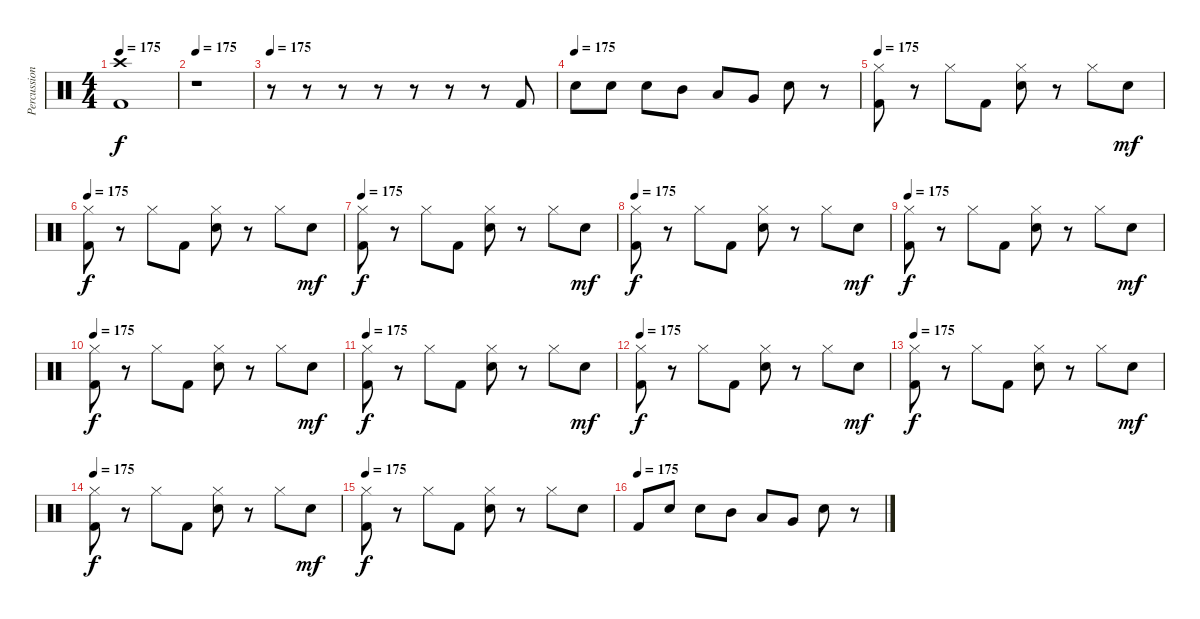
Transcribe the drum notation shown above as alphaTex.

\track ("Percussions" "Percussion") {instrument percussion}
\staff {score}
\articulation defaults
\ts (4 4)
\tempo 180
\tempo 175
\clef neutral
\ks c
("Crash high (hit)" "Kick (hit) 2").1{dy f} |
\tempo 175
r.1 |
\tempo 175
r.8 r.8 r.8 r.8 r.8 r.8 r.8 "Kick (hit) 2".8 |
\tempo (175)
"Snare (hit) 2".8 "Snare (hit) 2".8 "Snare (hit) 2".8 "Mid Tom (hit)".8 "Low Tom (hit)".8 "Very Low Tom (hit)".8 "Snare (hit) 2".8 r.8 |
\tempo 175
("Hi-Hat (closed)" "Kick (hit) 2").8 r.8 "Hi-Hat (closed)".8 "Kick (hit) 2".8 ("Hi-Hat (closed)" "Snare (hit) 2").8 r.8 "Hi-Hat (closed)".8 "Snare (hit) 2".8{dy mf} |
\tempo 175
("Hi-Hat (closed)" "Kick (hit) 2").8{dy f} r.8 "Hi-Hat (closed)".8 "Kick (hit) 2".8 ("Hi-Hat (closed)" "Snare (hit) 2").8 r.8 "Hi-Hat (closed)".8 "Snare (hit) 2".8{dy mf} |
\tempo 175
("Hi-Hat (closed)" "Kick (hit) 2").8{dy f} r.8 "Hi-Hat (closed)".8 "Kick (hit) 2".8 ("Hi-Hat (closed)" "Snare (hit) 2").8 r.8 "Hi-Hat (closed)".8 "Snare (hit) 2".8{dy mf} |
\tempo 175
("Hi-Hat (closed)" "Kick (hit) 2").8{dy f} r.8 "Hi-Hat (closed)".8 "Kick (hit) 2".8 ("Hi-Hat (closed)" "Snare (hit) 2").8 r.8 "Hi-Hat (closed)".8 "Snare (hit) 2".8{dy mf} |
\tempo 175
("Hi-Hat (closed)" "Kick (hit) 2").8{dy f} r.8 "Hi-Hat (closed)".8 "Kick (hit) 2".8 ("Hi-Hat (closed)" "Snare (hit) 2").8 r.8 "Hi-Hat (closed)".8 "Snare (hit) 2".8{dy mf} |
\tempo 175
("Hi-Hat (closed)" "Kick (hit) 2").8{dy f} r.8 "Hi-Hat (closed)".8 "Kick (hit) 2".8 ("Hi-Hat (closed)" "Snare (hit) 2").8 r.8 "Hi-Hat (closed)".8 "Snare (hit) 2".8{dy mf} |
\tempo 175
("Hi-Hat (closed)" "Kick (hit) 2").8{dy f} r.8 "Hi-Hat (closed)".8 "Kick (hit) 2".8 ("Hi-Hat (closed)" "Snare (hit) 2").8 r.8 "Hi-Hat (closed)".8 "Snare (hit) 2".8{dy mf} |
\tempo 175
("Hi-Hat (closed)" "Kick (hit) 2").8{dy f} r.8 "Hi-Hat (closed)".8 "Kick (hit) 2".8 ("Hi-Hat (closed)" "Snare (hit) 2").8 r.8 "Hi-Hat (closed)".8 "Snare (hit) 2".8{dy mf} |
\tempo 175
("Hi-Hat (closed)" "Kick (hit) 2").8{dy f} r.8 "Hi-Hat (closed)".8 "Kick (hit) 2".8 ("Hi-Hat (closed)" "Snare (hit) 2").8 r.8 "Hi-Hat (closed)".8 "Snare (hit) 2".8{dy mf} |
\tempo 175
("Hi-Hat (closed)" "Kick (hit) 2").8{dy f} r.8 "Hi-Hat (closed)".8 "Kick (hit) 2".8 ("Hi-Hat (closed)" "Snare (hit) 2").8 r.8 "Hi-Hat (closed)".8 "Snare (hit) 2".8{dy mf} |
\tempo 175
("Hi-Hat (closed)" "Kick (hit) 2").8{dy f} r.8 "Hi-Hat (closed)".8 "Kick (hit) 2".8 ("Hi-Hat (closed)" "Snare (hit) 2").8 r.8 "Hi-Hat (closed)".8 "Snare (hit) 2".8 |
\tempo (175)
"Kick (hit) 2".8 "Snare (hit) 2".8 "Snare (hit) 2".8 "Mid Tom (hit)".8 "Low Tom (hit)".8 "Very Low Tom (hit)".8 "Snare (hit) 2".8 r.8
